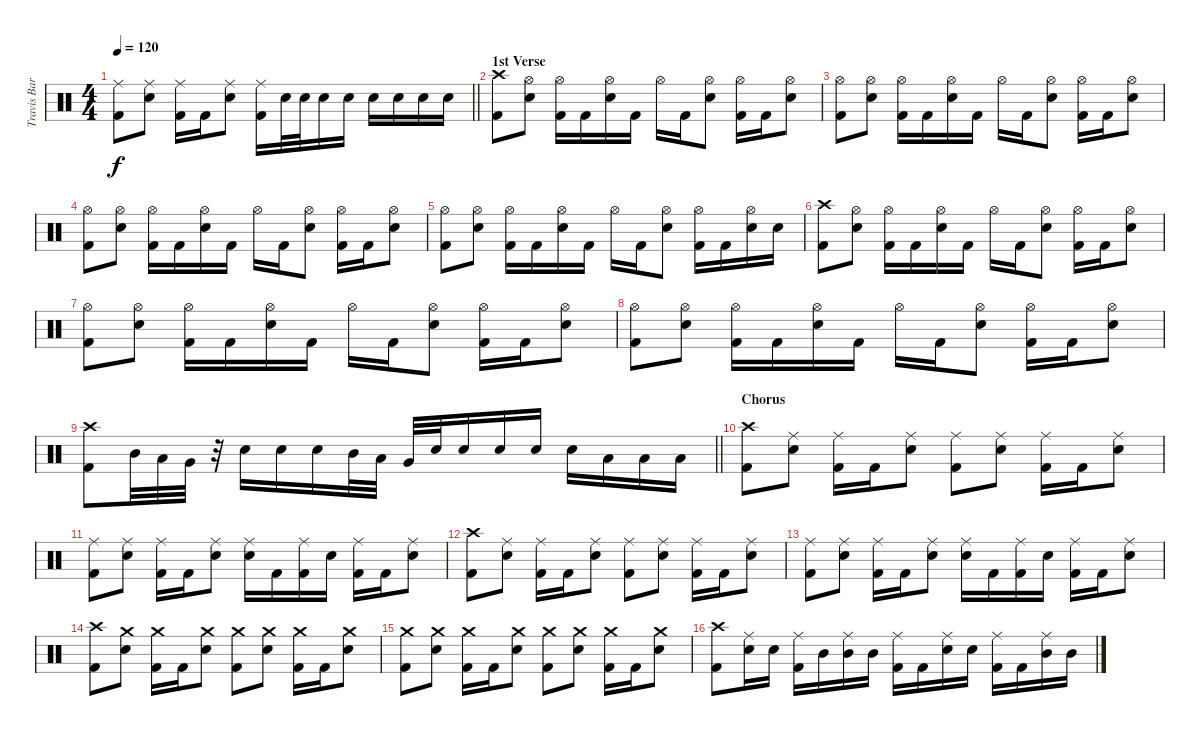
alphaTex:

\track ("Travis Barker - Drums" "Travis Bar") {instrument percussion}
\staff {score}
\articulation defaults
\ts (4 4)
\tempo 120
\clef neutral
\barLineRight lightlight
\ks c
("Ride (middle)" "Kick (hit) 2").8{dy f} ("Ride (middle)" "Electric Snare (hit)").8 ("Ride (middle)" "Kick (hit) 2").16 "Kick (hit) 2".16 ("Ride (middle)" "Electric Snare (hit)").8 ("Ride (middle)" "Kick (hit) 2").16 "Electric Snare (hit)".32 "Electric Snare (hit)".32 "Electric Snare (hit)".16 "Electric Snare (hit)".16 "Electric Snare (hit)".16 "Electric Snare (hit)".16 "Electric Snare (hit)".16 "Electric Snare (hit)".16 |
\section ("" "1st Verse")
("Crash high (hit)" "Kick (hit) 2").8 ("Hi-Hat (open)" "Electric Snare (hit)").8 ("Hi-Hat (open)" "Kick (hit) 2").16 "Kick (hit) 2".16 ("Hi-Hat (open)" "Electric Snare (hit)").16 "Kick (hit) 2".16 "Hi-Hat (open)".16 "Kick (hit) 2".16 ("Hi-Hat (open)" "Electric Snare (hit)").8 ("Hi-Hat (open)" "Kick (hit) 2").16 "Kick (hit) 2".16 ("Hi-Hat (open)" "Electric Snare (hit)").8 |
("Hi-Hat (open)" "Kick (hit) 2").8 ("Hi-Hat (open)" "Electric Snare (hit)").8 ("Hi-Hat (open)" "Kick (hit) 2").16 "Kick (hit) 2".16 ("Hi-Hat (open)" "Electric Snare (hit)").16 "Kick (hit) 2".16 "Hi-Hat (open)".16 "Kick (hit) 2".16 ("Hi-Hat (open)" "Electric Snare (hit)").8 ("Hi-Hat (open)" "Kick (hit) 2").16 "Kick (hit) 2".16 ("Hi-Hat (open)" "Electric Snare (hit)").8 |
("Hi-Hat (open)" "Kick (hit) 2").8 ("Hi-Hat (open)" "Electric Snare (hit)").8 ("Hi-Hat (open)" "Kick (hit) 2").16 "Kick (hit) 2".16 ("Hi-Hat (open)" "Electric Snare (hit)").16 "Kick (hit) 2".16 "Hi-Hat (open)".16 "Kick (hit) 2".16 ("Hi-Hat (open)" "Electric Snare (hit)").8 ("Hi-Hat (open)" "Kick (hit) 2").16 "Kick (hit) 2".16 ("Hi-Hat (open)" "Electric Snare (hit)").8 |
("Hi-Hat (open)" "Kick (hit) 2").8 ("Hi-Hat (open)" "Electric Snare (hit)").8 ("Hi-Hat (open)" "Kick (hit) 2").16 "Kick (hit) 2".16 ("Hi-Hat (open)" "Electric Snare (hit)").16 "Kick (hit) 2".16 "Hi-Hat (open)".16 "Kick (hit) 2".16 ("Hi-Hat (open)" "Electric Snare (hit)").8 ("Hi-Hat (open)" "Kick (hit) 2").16 "Kick (hit) 2".16 ("Hi-Hat (open)" "Electric Snare (hit)").16 "Electric Snare (hit)".16 |
("Crash high (hit)" "Kick (hit) 2").8 ("Hi-Hat (open)" "Electric Snare (hit)").8 ("Hi-Hat (open)" "Kick (hit) 2").16 "Kick (hit) 2".16 ("Hi-Hat (open)" "Electric Snare (hit)").16 "Kick (hit) 2".16 "Hi-Hat (open)".16 "Kick (hit) 2".16 ("Hi-Hat (open)" "Electric Snare (hit)").8 ("Hi-Hat (open)" "Kick (hit) 2").16 "Kick (hit) 2".16 ("Hi-Hat (open)" "Electric Snare (hit)").8 |
("Hi-Hat (open)" "Kick (hit) 2").8 ("Hi-Hat (open)" "Electric Snare (hit)").8 ("Hi-Hat (open)" "Kick (hit) 2").16 "Kick (hit) 2".16 ("Hi-Hat (open)" "Electric Snare (hit)").16 "Kick (hit) 2".16 "Hi-Hat (open)".16 "Kick (hit) 2".16 ("Hi-Hat (open)" "Electric Snare (hit)").8 ("Hi-Hat (open)" "Kick (hit) 2").16 "Kick (hit) 2".16 ("Hi-Hat (open)" "Electric Snare (hit)").8 |
("Hi-Hat (open)" "Kick (hit) 2").8 ("Hi-Hat (open)" "Electric Snare (hit)").8 ("Hi-Hat (open)" "Kick (hit) 2").16 "Kick (hit) 2".16 ("Hi-Hat (open)" "Electric Snare (hit)").16 "Kick (hit) 2".16 "Hi-Hat (open)".16 "Kick (hit) 2".16 ("Hi-Hat (open)" "Electric Snare (hit)").8 ("Hi-Hat (open)" "Kick (hit) 2").16 "Kick (hit) 2".16 ("Hi-Hat (open)" "Electric Snare (hit)").8 |
\barLineRight lightlight
("Crash high (hit)" "Kick (hit) 2").8 "Mid Tom (hit)".32 "Low Tom (hit)".32 "Very Low Tom (hit)".32 r.32 "Electric Snare (hit)".16 "Electric Snare (hit)".16 "Electric Snare (hit)".16 "Mid Tom (hit)".32 "Low Tom (hit)".32 "Very Low Tom (hit)".32 "Electric Snare (hit)".32 "Electric Snare (hit)".16 "Electric Snare (hit)".16 "Electric Snare (hit)".16 "Electric Snare (hit)".16 "Low Tom (hit)".16 "Low Tom (hit)".16 "Low Tom (hit)".16 |
\section ("" "Chorus")
("Crash high (hit)" "Kick (hit) 2").8 ("Ride (middle)" "Electric Snare (hit)").8 ("Ride (middle)" "Kick (hit) 2").16 "Kick (hit) 2".16 ("Ride (middle)" "Electric Snare (hit)").8 ("Ride (middle)" "Kick (hit) 2").8 ("Ride (middle)" "Electric Snare (hit)").8 ("Ride (middle)" "Kick (hit) 2").16 "Kick (hit) 2".16 ("Ride (middle)" "Electric Snare (hit)").8 |
("Ride (middle)" "Kick (hit) 2").8 ("Ride (middle)" "Electric Snare (hit)").8 ("Ride (middle)" "Kick (hit) 2").16 "Kick (hit) 2".16 ("Ride (middle)" "Electric Snare (hit)").8 ("Ride (middle)" "Electric Snare (hit)").16 "Kick (hit) 2".16 ("Ride (middle)" "Kick (hit) 2").16 "Electric Snare (hit)".16 ("Ride (middle)" "Kick (hit) 2").16 "Kick (hit) 2".16 ("Ride (middle)" "Electric Snare (hit)").8 |
("Crash high (hit)" "Kick (hit) 2").8 ("Ride (middle)" "Electric Snare (hit)").8 ("Ride (middle)" "Kick (hit) 2").16 "Kick (hit) 2".16 ("Ride (middle)" "Electric Snare (hit)").8 ("Ride (middle)" "Kick (hit) 2").8 ("Ride (middle)" "Electric Snare (hit)").8 ("Ride (middle)" "Kick (hit) 2").16 "Kick (hit) 2".16 ("Ride (middle)" "Electric Snare (hit)").8 |
("Ride (middle)" "Kick (hit) 2").8 ("Ride (middle)" "Electric Snare (hit)").8 ("Ride (middle)" "Kick (hit) 2").16 "Kick (hit) 2".16 ("Ride (middle)" "Electric Snare (hit)").8 ("Ride (middle)" "Electric Snare (hit)").16 "Kick (hit) 2".16 ("Ride (middle)" "Kick (hit) 2").16 "Electric Snare (hit)".16 ("Ride (middle)" "Kick (hit) 2").16 "Kick (hit) 2".16 ("Ride (middle)" "Electric Snare (hit)").8 |
("Crash high (hit)" "Kick (hit) 2").8 ("Crash medium (hit)" "Electric Snare (hit)").8 ("Crash medium (hit)" "Kick (hit) 2").16 "Kick (hit) 2".16 ("Crash medium (hit)" "Electric Snare (hit)").8 ("Crash medium (hit)" "Kick (hit) 2").8 ("Crash medium (hit)" "Electric Snare (hit)").8 ("Crash medium (hit)" "Kick (hit) 2").16 "Kick (hit) 2".16 ("Crash medium (hit)" "Electric Snare (hit)").8 |
("Crash medium (hit)" "Kick (hit) 2").8 ("Crash medium (hit)" "Electric Snare (hit)").8 ("Crash medium (hit)" "Kick (hit) 2").16 "Kick (hit) 2".16 ("Crash medium (hit)" "Electric Snare (hit)").8 ("Crash medium (hit)" "Kick (hit) 2").8 ("Crash medium (hit)" "Electric Snare (hit)").8 ("Crash medium (hit)" "Kick (hit) 2").16 "Kick (hit) 2".16 ("Crash medium (hit)" "Electric Snare (hit)").8 |
("Crash high (hit)" "Kick (hit) 2").8 ("Ride (middle)" "Electric Snare (hit)").16 "Electric Snare (hit)".16 ("Ride (middle)" "Kick (hit) 2").16 "Mid Tom (hit)".16 ("Ride (middle)" "Mid Tom (hit)").16 "Mid Tom (hit)".16 ("Ride (middle)" "Kick (hit) 2").16 "Kick (hit) 2".16 ("Ride (middle)" "Electric Snare (hit)").16 "Electric Snare (hit)".16 ("Ride (middle)" "Kick (hit) 2").16 "Kick (hit) 2".16 ("Ride (middle)" "Mid Tom (hit)").16 "Mid Tom (hit)".16
